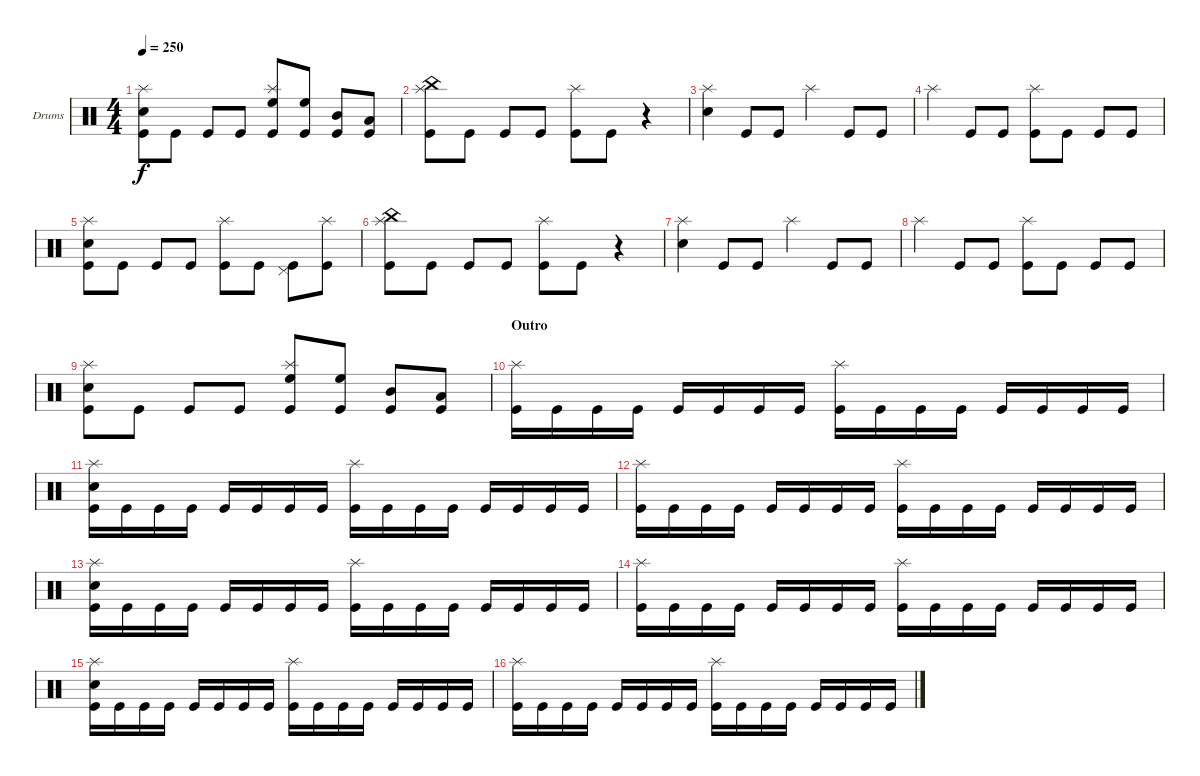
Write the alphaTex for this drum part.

\defaultSystemsLayout 4
\bracketExtendMode groupsimilarinstruments
\firstSystemTrackNameOrientation horizontal
\otherSystemsTrackNameOrientation horizontal
\track ("Drumkit" "Drums") {instrument percussion}
\staff {score}
\articulation defaults
\ts (4 4)
\tempo 250
\clef neutral
\ks c
("Kick (hit)" "Snare (hit) 2" "Splash (hit)").8{dy f} "Kick (hit)".8 "Kick (hit)".8 "Kick (hit)".8 ("Kick (hit)" "Splash (hit)" "High Floor Tom (hit)").8 ("Kick (hit)" "High Floor Tom (hit)").8 ("Kick (hit)" "Mid Tom (hit)").8 ("Kick (hit)" "Low Tom (hit)").8 |
("Kick (hit)" "China (hit)" "Splash (hit)").8 "Kick (hit)".8 "Kick (hit)".8 "Kick (hit)".8 ("Kick (hit)" "Splash (hit)").8 "Kick (hit)".8 r.4 |
("Splash (hit)" "Snare (hit) 2").4 "Kick (hit)".8 "Kick (hit)".8 "Splash (hit)".4 "Kick (hit)".8 "Kick (hit)".8 |
"Splash (hit)".4 "Kick (hit)".8 "Kick (hit)".8 ("Kick (hit)" "Splash (hit)").8 "Kick (hit)".8 "Kick (hit)".8 "Kick (hit)".8 |
("Kick (hit)" "Snare (hit) 2" "Splash (hit)").8 "Kick (hit)".8 "Kick (hit)".8 "Kick (hit)".8 ("Kick (hit)" "Splash (hit)").8 "Kick (hit)".8 ("Kick (hit)" "Pedal Hi-Hat (hit)").8 ("Kick (hit)" "Splash (hit)").8 |
("Kick (hit)" "China (hit)" "Splash (hit)").8 "Kick (hit)".8 "Kick (hit)".8 "Kick (hit)".8 ("Kick (hit)" "Splash (hit)").8 "Kick (hit)".8 r.4 |
("Splash (hit)" "Snare (hit) 2").4 "Kick (hit)".8 "Kick (hit)".8 "Splash (hit)".4 "Kick (hit)".8 "Kick (hit)".8 |
"Splash (hit)".4 "Kick (hit)".8 "Kick (hit)".8 ("Kick (hit)" "Splash (hit)").8 "Kick (hit)".8 "Kick (hit)".8 "Kick (hit)".8 |
("Kick (hit)" "Snare (hit) 2" "Splash (hit)").8 "Kick (hit)".8 "Kick (hit)".8 "Kick (hit)".8 ("Kick (hit)" "Splash (hit)" "High Floor Tom (hit)").8 ("Kick (hit)" "High Floor Tom (hit)").8 ("Kick (hit)" "Mid Tom (hit)").8 ("Kick (hit)" "Low Tom (hit)").8 |
\section ("" "Outro")
("Kick (hit)" "Splash (hit)").16 "Kick (hit)".16 "Kick (hit)".16 "Kick (hit)".16 "Kick (hit)".16 "Kick (hit)".16 "Kick (hit)".16 "Kick (hit)".16 ("Kick (hit)" "Splash (hit)").16 "Kick (hit)".16 "Kick (hit)".16 "Kick (hit)".16 "Kick (hit)".16 "Kick (hit)".16 "Kick (hit)".16 "Kick (hit)".16 |
("Kick (hit)" "Splash (hit)" "Snare (hit) 2").16 "Kick (hit)".16 "Kick (hit)".16 "Kick (hit)".16 "Kick (hit)".16 "Kick (hit)".16 "Kick (hit)".16 "Kick (hit)".16 ("Kick (hit)" "Splash (hit)").16 "Kick (hit)".16 "Kick (hit)".16 "Kick (hit)".16 "Kick (hit)".16 "Kick (hit)".16 "Kick (hit)".16 "Kick (hit)".16 |
("Kick (hit)" "Splash (hit)").16 "Kick (hit)".16 "Kick (hit)".16 "Kick (hit)".16 "Kick (hit)".16 "Kick (hit)".16 "Kick (hit)".16 "Kick (hit)".16 ("Kick (hit)" "Splash (hit)").16 "Kick (hit)".16 "Kick (hit)".16 "Kick (hit)".16 "Kick (hit)".16 "Kick (hit)".16 "Kick (hit)".16 "Kick (hit)".16 |
("Kick (hit)" "Splash (hit)" "Snare (hit) 2").16 "Kick (hit)".16 "Kick (hit)".16 "Kick (hit)".16 "Kick (hit)".16 "Kick (hit)".16 "Kick (hit)".16 "Kick (hit)".16 ("Kick (hit)" "Splash (hit)").16 "Kick (hit)".16 "Kick (hit)".16 "Kick (hit)".16 "Kick (hit)".16 "Kick (hit)".16 "Kick (hit)".16 "Kick (hit)".16 |
("Kick (hit)" "Splash (hit)").16 "Kick (hit)".16 "Kick (hit)".16 "Kick (hit)".16 "Kick (hit)".16 "Kick (hit)".16 "Kick (hit)".16 "Kick (hit)".16 ("Kick (hit)" "Splash (hit)").16 "Kick (hit)".16 "Kick (hit)".16 "Kick (hit)".16 "Kick (hit)".16 "Kick (hit)".16 "Kick (hit)".16 "Kick (hit)".16 |
("Kick (hit)" "Splash (hit)" "Snare (hit) 2").16 "Kick (hit)".16 "Kick (hit)".16 "Kick (hit)".16 "Kick (hit)".16 "Kick (hit)".16 "Kick (hit)".16 "Kick (hit)".16 ("Kick (hit)" "Splash (hit)").16 "Kick (hit)".16 "Kick (hit)".16 "Kick (hit)".16 "Kick (hit)".16 "Kick (hit)".16 "Kick (hit)".16 "Kick (hit)".16 |
("Kick (hit)" "Splash (hit)").16 "Kick (hit)".16 "Kick (hit)".16 "Kick (hit)".16 "Kick (hit)".16 "Kick (hit)".16 "Kick (hit)".16 "Kick (hit)".16 ("Kick (hit)" "Splash (hit)").16 "Kick (hit)".16 "Kick (hit)".16 "Kick (hit)".16 "Kick (hit)".16 "Kick (hit)".16 "Kick (hit)".16 "Kick (hit)".16
